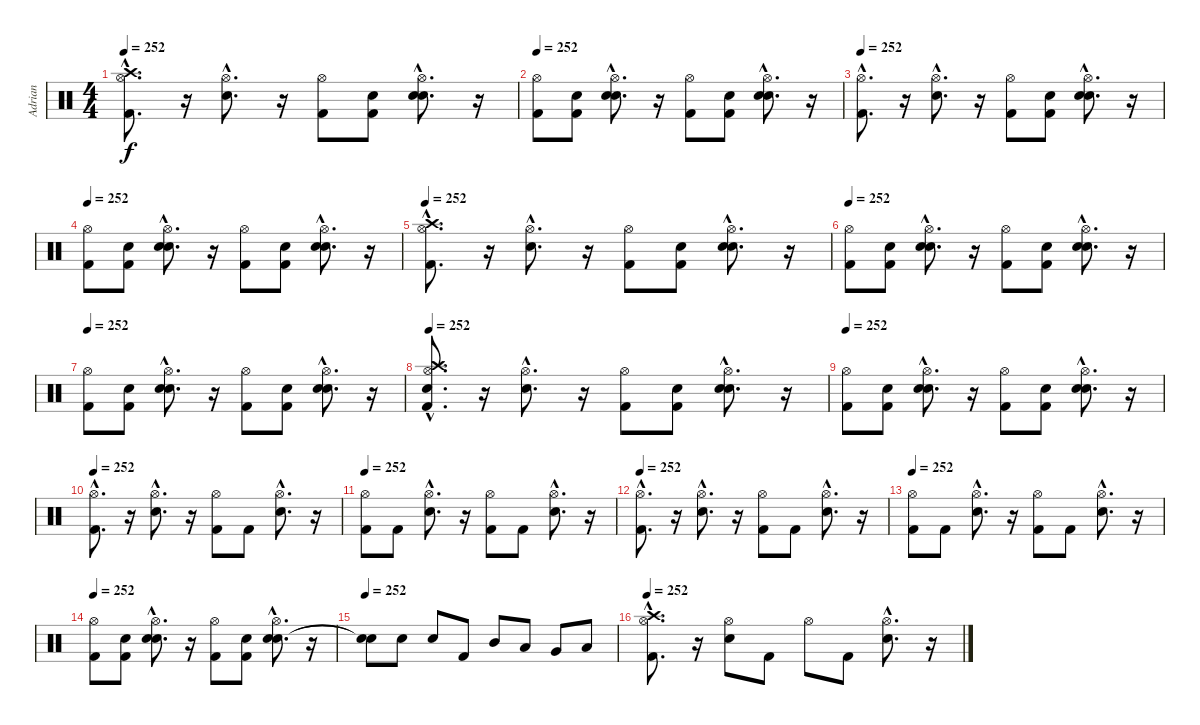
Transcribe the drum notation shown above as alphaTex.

\track ("Adrian" "Adrian") {instrument percussion}
\staff {score}
\articulation defaults
\ts (4 4)
\tempo 252
\clef neutral
\ks c
("Kick (hit) 2"{hac} "Hi-Hat (open)"{hac} "Crash high (hit)"{hac}).8{d dy f} r.16 ("Snare (hit) 2"{hac} "Hi-Hat (open)"{hac}).8{d} r.16 ("Kick (hit) 2" "Hi-Hat (open)").8 ("Snare (hit)" "Kick (hit) 2").8 ("Snare (hit)"{hac} "Snare (hit) 2"{hac} "Hi-Hat (open)"{hac}).8{d} r.16 |
\tempo 252
("Kick (hit) 2" "Hi-Hat (open)").8 ("Snare (hit)" "Kick (hit) 2").8 ("Snare (hit)"{hac} "Snare (hit) 2"{hac} "Hi-Hat (open)"{hac}).8{d} r.16 ("Kick (hit) 2" "Hi-Hat (open)").8 ("Snare (hit)" "Kick (hit) 2").8 ("Snare (hit)"{hac} "Snare (hit) 2"{hac} "Hi-Hat (open)"{hac}).8{d} r.16 |
\tempo 252
("Kick (hit) 2"{hac} "Hi-Hat (open)"{hac}).8{d} r.16 ("Snare (hit) 2"{hac} "Hi-Hat (open)"{hac}).8{d} r.16 ("Kick (hit) 2" "Hi-Hat (open)").8 ("Snare (hit)" "Kick (hit) 2").8 ("Snare (hit)"{hac} "Snare (hit) 2"{hac} "Hi-Hat (open)"{hac}).8{d} r.16 |
\tempo 252
("Kick (hit) 2" "Hi-Hat (open)").8 ("Snare (hit)" "Kick (hit) 2").8 ("Snare (hit)"{hac} "Snare (hit) 2"{hac} "Hi-Hat (open)"{hac}).8{d} r.16 ("Kick (hit) 2" "Hi-Hat (open)").8 ("Snare (hit)" "Kick (hit) 2").8 ("Snare (hit)"{hac} "Snare (hit) 2"{hac} "Hi-Hat (open)"{hac}).8{d} r.16 |
\tempo 252
("Kick (hit) 2"{hac} "Hi-Hat (open)"{hac} "Crash high (hit)"{hac}).8{d} r.16 ("Snare (hit) 2"{hac} "Hi-Hat (open)"{hac}).8{d} r.16 ("Kick (hit) 2" "Hi-Hat (open)").8 ("Snare (hit)" "Kick (hit) 2").8 ("Snare (hit)"{hac} "Snare (hit) 2"{hac} "Hi-Hat (open)"{hac}).8{d} r.16 |
\tempo 252
("Kick (hit) 2" "Hi-Hat (open)").8 ("Snare (hit)" "Kick (hit) 2").8 ("Snare (hit)"{hac} "Snare (hit) 2"{hac} "Hi-Hat (open)"{hac}).8{d} r.16 ("Kick (hit) 2" "Hi-Hat (open)").8 ("Snare (hit)" "Kick (hit) 2").8 ("Snare (hit)"{hac} "Snare (hit) 2"{hac} "Hi-Hat (open)"{hac}).8{d} r.16 |
\tempo 252
("Kick (hit) 2" "Hi-Hat (open)").8 ("Snare (hit)" "Kick (hit) 2").8 ("Snare (hit)"{hac} "Snare (hit) 2"{hac} "Hi-Hat (open)"{hac}).8{d} r.16 ("Kick (hit) 2" "Hi-Hat (open)").8 ("Snare (hit)" "Kick (hit) 2").8 ("Snare (hit)"{hac} "Snare (hit) 2"{hac} "Hi-Hat (open)"{hac}).8{d} r.16 |
\tempo 252
("Snare (hit)"{hac} "Kick (hit) 2"{hac} "Hi-Hat (open)"{hac} "Crash high (hit)"{hac}).8{d} r.16 ("Snare (hit) 2"{hac} "Hi-Hat (open)"{hac}).8{d} r.16 ("Kick (hit) 2" "Hi-Hat (open)").8 ("Snare (hit)" "Kick (hit) 2").8 ("Snare (hit)"{hac} "Snare (hit) 2"{hac} "Hi-Hat (open)"{hac}).8{d} r.16 |
\tempo 252
("Kick (hit) 2" "Hi-Hat (open)").8 ("Snare (hit)" "Kick (hit) 2").8 ("Snare (hit)"{hac} "Snare (hit) 2"{hac} "Hi-Hat (open)"{hac}).8{d} r.16 ("Kick (hit) 2" "Hi-Hat (open)").8 ("Snare (hit)" "Kick (hit) 2").8 ("Snare (hit)"{hac} "Snare (hit) 2"{hac} "Hi-Hat (open)"{hac}).8{d} r.16 |
\tempo 252
("Kick (hit) 2"{hac} "Hi-Hat (open)"{hac}).8{d} r.16 ("Snare (hit) 2"{hac} "Hi-Hat (open)"{hac}).8{d} r.16 ("Kick (hit) 2" "Hi-Hat (open)").8 "Kick (hit) 2".8 ("Snare (hit) 2"{hac} "Hi-Hat (open)"{hac}).8{d} r.16 |
\tempo 252
("Kick (hit) 2" "Hi-Hat (open)").8 "Kick (hit) 2".8 ("Snare (hit) 2"{hac} "Hi-Hat (open)"{hac}).8{d} r.16 ("Kick (hit) 2" "Hi-Hat (open)").8 "Kick (hit) 2".8 ("Snare (hit) 2"{hac} "Hi-Hat (open)"{hac}).8{d} r.16 |
\tempo 252
("Kick (hit) 2"{hac} "Hi-Hat (open)"{hac}).8{d} r.16 ("Snare (hit) 2"{hac} "Hi-Hat (open)"{hac}).8{d} r.16 ("Kick (hit) 2" "Hi-Hat (open)").8 "Kick (hit) 2".8 ("Snare (hit) 2"{hac} "Hi-Hat (open)"{hac}).8{d} r.16 |
\tempo 252
("Kick (hit) 2" "Hi-Hat (open)").8 "Kick (hit) 2".8 ("Snare (hit) 2"{hac} "Hi-Hat (open)"{hac}).8{d} r.16 ("Kick (hit) 2" "Hi-Hat (open)").8 "Kick (hit) 2".8 ("Snare (hit) 2"{hac} "Hi-Hat (open)"{hac}).8{d} r.16 |
\tempo 252
("Kick (hit) 2" "Hi-Hat (open)").8 ("Snare (hit)" "Kick (hit) 2").8 ("Snare (hit)"{hac} "Snare (hit) 2"{hac} "Hi-Hat (open)"{hac}).8{d} r.16 ("Kick (hit) 2" "Hi-Hat (open)").8 ("Snare (hit)" "Kick (hit) 2").8 ("Snare (hit)"{hac} "Snare (hit) 2"{hac} "Hi-Hat (open)"{hac}).8{d} r.16 |
\tempo 252
("Snare (hit)"{t} "Snare (hit)"{t}).8 "Snare (hit) 2".8 "Snare (hit) 2".8 "Kick (hit) 2".8 "Mid Tom (hit)".8 "Low Tom (hit)".8 "Very Low Tom (hit)".8 "Low Floor Tom (hit)".8 |
\tempo 252
("Kick (hit) 2"{hac} "Hi-Hat (open)"{hac} "Crash high (hit)"{hac}).8{d} r.16 ("Snare (hit) 2" "Hi-Hat (open)").8 "Kick (hit) 2".8 "Hi-Hat (open)".8 "Kick (hit) 2".8 ("Snare (hit) 2"{hac} "Hi-Hat (open)"{hac}).8{d} r.16
